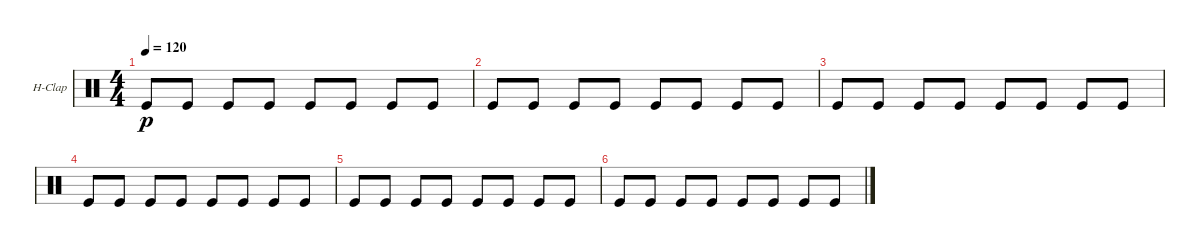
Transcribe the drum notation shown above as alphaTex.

\defaultSystemsLayout 4
\bracketExtendMode groupsimilarinstruments
\firstSystemTrackNameOrientation horizontal
\otherSystemsTrackNameOrientation horizontal
\track ("Hand Clap" "H-Clap") {instrument percussion}
\staff {score}
\articulation defaults
\ts (4 4)
\tempo 120
\clef neutral
\scale
0.333333
\ks c "Kick (hit)".8{dy p} "Kick (hit)".8 "Kick (hit)".8 "Kick (hit)".8 "Kick (hit)".8 "Kick (hit)".8 "Kick (hit)".8 "Kick (hit)".8
|
\scale
0.333333 "Kick (hit)".8 "Kick (hit)".8 "Kick (hit)".8 "Kick (hit)".8 "Kick (hit)".8 "Kick (hit)".8 "Kick (hit)".8 "Kick (hit)".8 |
\scale
0.333333 "Kick (hit)".8 "Kick (hit)".8 "Kick (hit)".8 "Kick (hit)".8 "Kick (hit)".8 "Kick (hit)".8 "Kick (hit)".8 "Kick (hit)".8 |
\scale
0.333333 "Kick (hit)".8 "Kick (hit)".8 "Kick (hit)".8 "Kick (hit)".8 "Kick (hit)".8 "Kick (hit)".8 "Kick (hit)".8 "Kick (hit)".8 |
\scale
0.333333 "Kick (hit)".8 "Kick (hit)".8 "Kick (hit)".8 "Kick (hit)".8 "Kick (hit)".8 "Kick (hit)".8 "Kick (hit)".8 "Kick (hit)".8 |
\scale
0.333333 "Kick (hit)".8 "Kick (hit)".8 "Kick (hit)".8 "Kick (hit)".8 "Kick (hit)".8 "Kick (hit)".8 "Kick (hit)".8 "Kick (hit)".8 |
\scale
0.333333
